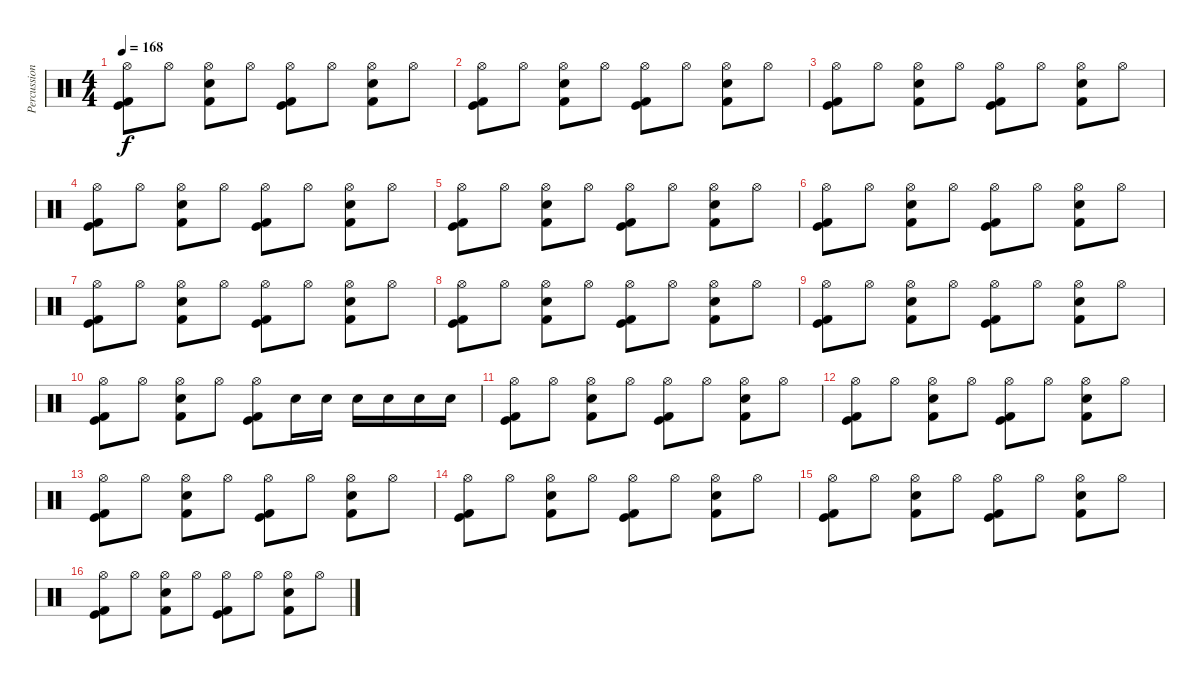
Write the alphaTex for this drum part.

\track ("Percussion" "Percussion") {instrument percussion}
\staff {score}
\articulation defaults
\ts (4 4)
\tempo 168
\clef neutral
\ks c
("Hi-Hat (open)" "Kick (hit)" "Kick (hit) 2").8{dy f} "Hi-Hat (open)".8 ("Hi-Hat (open)" "Electric Snare (hit)" "Kick (hit) 2").8 "Hi-Hat (open)".8 ("Hi-Hat (open)" "Kick (hit)" "Kick (hit) 2").8 "Hi-Hat (open)".8 ("Hi-Hat (open)" "Electric Snare (hit)" "Kick (hit) 2").8 "Hi-Hat (open)".8 |
("Hi-Hat (open)" "Kick (hit)" "Kick (hit) 2").8 "Hi-Hat (open)".8 ("Hi-Hat (open)" "Electric Snare (hit)" "Kick (hit) 2").8 "Hi-Hat (open)".8 ("Hi-Hat (open)" "Kick (hit)" "Kick (hit) 2").8 "Hi-Hat (open)".8 ("Hi-Hat (open)" "Electric Snare (hit)" "Kick (hit) 2").8 "Hi-Hat (open)".8 |
("Hi-Hat (open)" "Kick (hit)" "Kick (hit) 2").8 "Hi-Hat (open)".8 ("Hi-Hat (open)" "Electric Snare (hit)" "Kick (hit) 2").8 "Hi-Hat (open)".8 ("Hi-Hat (open)" "Kick (hit)" "Kick (hit) 2").8 "Hi-Hat (open)".8 ("Hi-Hat (open)" "Electric Snare (hit)" "Kick (hit) 2").8 "Hi-Hat (open)".8 |
("Hi-Hat (open)" "Kick (hit)" "Kick (hit) 2").8 "Hi-Hat (open)".8 ("Hi-Hat (open)" "Electric Snare (hit)" "Kick (hit) 2").8 "Hi-Hat (open)".8 ("Hi-Hat (open)" "Kick (hit)" "Kick (hit) 2").8 "Hi-Hat (open)".8 ("Hi-Hat (open)" "Electric Snare (hit)" "Kick (hit) 2").8 "Hi-Hat (open)".8 |
("Hi-Hat (open)" "Kick (hit)" "Kick (hit) 2").8 "Hi-Hat (open)".8 ("Hi-Hat (open)" "Electric Snare (hit)" "Kick (hit) 2").8 "Hi-Hat (open)".8 ("Hi-Hat (open)" "Kick (hit)" "Kick (hit) 2").8 "Hi-Hat (open)".8 ("Hi-Hat (open)" "Electric Snare (hit)" "Kick (hit) 2").8 "Hi-Hat (open)".8 |
("Hi-Hat (open)" "Kick (hit)" "Kick (hit) 2").8 "Hi-Hat (open)".8 ("Hi-Hat (open)" "Electric Snare (hit)" "Kick (hit) 2").8 "Hi-Hat (open)".8 ("Hi-Hat (open)" "Kick (hit)" "Kick (hit) 2").8 "Hi-Hat (open)".8 ("Hi-Hat (open)" "Electric Snare (hit)" "Kick (hit) 2").8 "Hi-Hat (open)".8 |
("Hi-Hat (open)" "Kick (hit)" "Kick (hit) 2").8 "Hi-Hat (open)".8 ("Hi-Hat (open)" "Electric Snare (hit)" "Kick (hit) 2").8 "Hi-Hat (open)".8 ("Hi-Hat (open)" "Kick (hit)" "Kick (hit) 2").8 "Hi-Hat (open)".8 ("Hi-Hat (open)" "Electric Snare (hit)" "Kick (hit) 2").8 "Hi-Hat (open)".8 |
("Hi-Hat (open)" "Kick (hit)" "Kick (hit) 2").8 "Hi-Hat (open)".8 ("Hi-Hat (open)" "Electric Snare (hit)" "Kick (hit) 2").8 "Hi-Hat (open)".8 ("Hi-Hat (open)" "Kick (hit)" "Kick (hit) 2").8 "Hi-Hat (open)".8 ("Hi-Hat (open)" "Electric Snare (hit)" "Kick (hit) 2").8 "Hi-Hat (open)".8 |
("Hi-Hat (open)" "Kick (hit)" "Kick (hit) 2").8 "Hi-Hat (open)".8 ("Hi-Hat (open)" "Electric Snare (hit)" "Kick (hit) 2").8 "Hi-Hat (open)".8 ("Hi-Hat (open)" "Kick (hit)" "Kick (hit) 2").8 "Hi-Hat (open)".8 ("Hi-Hat (open)" "Electric Snare (hit)" "Kick (hit) 2").8 "Hi-Hat (open)".8 |
("Hi-Hat (open)" "Kick (hit)" "Kick (hit) 2").8 "Hi-Hat (open)".8 ("Hi-Hat (open)" "Electric Snare (hit)" "Kick (hit) 2").8 "Hi-Hat (open)".8 ("Hi-Hat (open)" "Kick (hit)" "Kick (hit) 2").8 "Electric Snare (hit)".16 "Electric Snare (hit)".16 "Electric Snare (hit)".16 "Electric Snare (hit)".16 "Electric Snare (hit)".16 "Electric Snare (hit)".16 |
("Hi-Hat (open)" "Kick (hit)" "Kick (hit) 2").8 "Hi-Hat (open)".8 ("Hi-Hat (open)" "Electric Snare (hit)" "Kick (hit) 2").8 "Hi-Hat (open)".8 ("Hi-Hat (open)" "Kick (hit)" "Kick (hit) 2").8 "Hi-Hat (open)".8 ("Hi-Hat (open)" "Electric Snare (hit)" "Kick (hit) 2").8 "Hi-Hat (open)".8 |
("Hi-Hat (open)" "Kick (hit)" "Kick (hit) 2").8 "Hi-Hat (open)".8 ("Hi-Hat (open)" "Electric Snare (hit)" "Kick (hit) 2").8 "Hi-Hat (open)".8 ("Hi-Hat (open)" "Kick (hit)" "Kick (hit) 2").8 "Hi-Hat (open)".8 ("Hi-Hat (open)" "Electric Snare (hit)" "Kick (hit) 2").8 "Hi-Hat (open)".8 |
("Hi-Hat (open)" "Kick (hit)" "Kick (hit) 2").8 "Hi-Hat (open)".8 ("Hi-Hat (open)" "Electric Snare (hit)" "Kick (hit) 2").8 "Hi-Hat (open)".8 ("Hi-Hat (open)" "Kick (hit)" "Kick (hit) 2").8 "Hi-Hat (open)".8 ("Hi-Hat (open)" "Electric Snare (hit)" "Kick (hit) 2").8 "Hi-Hat (open)".8 |
("Hi-Hat (open)" "Kick (hit)" "Kick (hit) 2").8 "Hi-Hat (open)".8 ("Hi-Hat (open)" "Electric Snare (hit)" "Kick (hit) 2").8 "Hi-Hat (open)".8 ("Hi-Hat (open)" "Kick (hit)" "Kick (hit) 2").8 "Hi-Hat (open)".8 ("Hi-Hat (open)" "Electric Snare (hit)" "Kick (hit) 2").8 "Hi-Hat (open)".8 |
("Hi-Hat (open)" "Kick (hit)" "Kick (hit) 2").8 "Hi-Hat (open)".8 ("Hi-Hat (open)" "Electric Snare (hit)" "Kick (hit) 2").8 "Hi-Hat (open)".8 ("Hi-Hat (open)" "Kick (hit)" "Kick (hit) 2").8 "Hi-Hat (open)".8 ("Hi-Hat (open)" "Electric Snare (hit)" "Kick (hit) 2").8 "Hi-Hat (open)".8 |
("Hi-Hat (open)" "Kick (hit)" "Kick (hit) 2").8 "Hi-Hat (open)".8 ("Hi-Hat (open)" "Electric Snare (hit)" "Kick (hit) 2").8 "Hi-Hat (open)".8 ("Hi-Hat (open)" "Kick (hit)" "Kick (hit) 2").8 "Hi-Hat (open)".8 ("Hi-Hat (open)" "Electric Snare (hit)" "Kick (hit) 2").8 "Hi-Hat (open)".8
